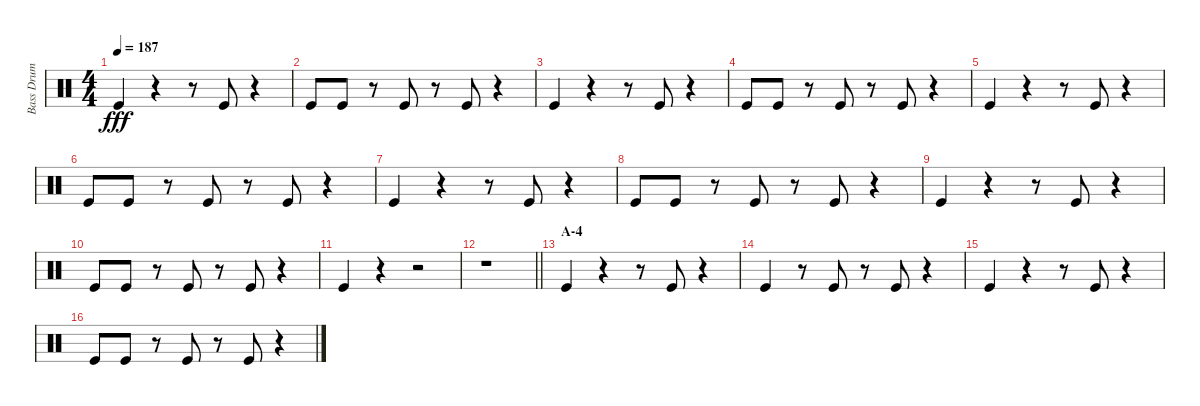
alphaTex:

\track ("Bass Drum" "Bass Drum") {instrument percussion}
\staff {score}
\articulation defaults
\ts (4 4)
\tempo 187
\clef neutral
\ks c "Kick (hit)".4{dy fff}
r.4 r.8 "Kick (hit)".8 r.4 |
"Kick (hit)".8 "Kick (hit)".8 r.8 "Kick (hit)".8 r.8 "Kick (hit)".8 r.4 |
"Kick (hit)".4 r.4 r.8 "Kick (hit)".8 r.4 |
"Kick (hit)".8 "Kick (hit)".8 r.8 "Kick (hit)".8 r.8 "Kick (hit)".8 r.4 |
"Kick (hit)".4 r.4 r.8 "Kick (hit)".8 r.4 |
"Kick (hit)".8 "Kick (hit)".8 r.8 "Kick (hit)".8 r.8 "Kick (hit)".8 r.4 |
"Kick (hit)".4 r.4 r.8 "Kick (hit)".8 r.4 |
"Kick (hit)".8 "Kick (hit)".8 r.8 "Kick (hit)".8 r.8 "Kick (hit)".8 r.4 |
"Kick (hit)".4 r.4 r.8 "Kick (hit)".8 r.4 |
"Kick (hit)".8 "Kick (hit)".8 r.8 "Kick (hit)".8 r.8 "Kick (hit)".8 r.4 |
"Kick (hit)".4 r.4 r.2 |
\barLineRight lightlight
r.1 |
\section ("" "A-4")
"Kick (hit)".4 r.4 r.8 "Kick (hit)".8 r.4 |
"Kick (hit)".4 r.8 "Kick (hit)".8 r.8 "Kick (hit)".8 r.4 |
"Kick (hit)".4 r.4 r.8 "Kick (hit)".8 r.4 |
"Kick (hit)".8 "Kick (hit)".8 r.8 "Kick (hit)".8 r.8 "Kick (hit)".8 r.4
